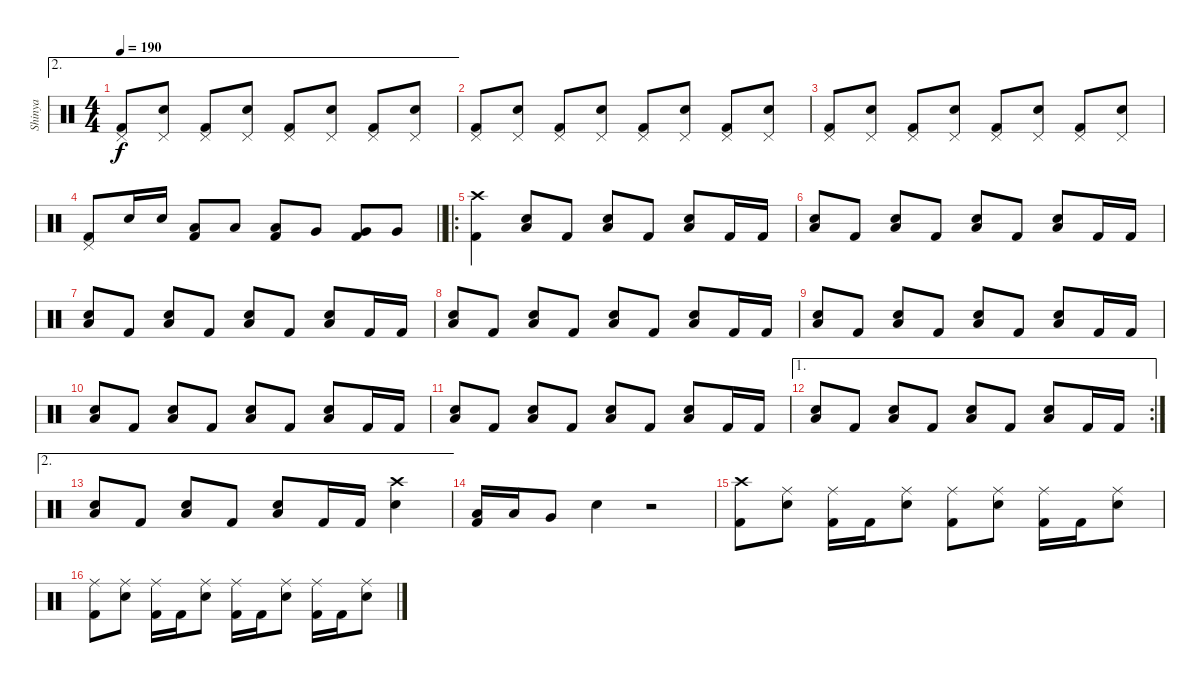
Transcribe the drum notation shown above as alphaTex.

\track ("Shinya" "Shinya") {instrument percussion}
\staff {score}
\articulation defaults
\ae 2
\ts (4 4)
\tempo 190
\clef neutral
\ks c
("Pedal Hi-Hat (hit)" "Kick (hit) 2").8{dy f} ("Pedal Hi-Hat (hit)" "Electric Snare (hit)").8 ("Pedal Hi-Hat (hit)" "Kick (hit) 2").8 ("Pedal Hi-Hat (hit)" "Electric Snare (hit)").8 ("Pedal Hi-Hat (hit)" "Kick (hit) 2").8 ("Pedal Hi-Hat (hit)" "Electric Snare (hit)").8 ("Pedal Hi-Hat (hit)" "Kick (hit) 2").8 ("Pedal Hi-Hat (hit)" "Electric Snare (hit)").8 |
("Pedal Hi-Hat (hit)" "Kick (hit) 2").8 ("Pedal Hi-Hat (hit)" "Electric Snare (hit)").8 ("Pedal Hi-Hat (hit)" "Kick (hit) 2").8 ("Pedal Hi-Hat (hit)" "Electric Snare (hit)").8 ("Pedal Hi-Hat (hit)" "Kick (hit) 2").8 ("Pedal Hi-Hat (hit)" "Electric Snare (hit)").8 ("Pedal Hi-Hat (hit)" "Kick (hit) 2").8 ("Pedal Hi-Hat (hit)" "Electric Snare (hit)").8 |
("Pedal Hi-Hat (hit)" "Kick (hit) 2").8 ("Pedal Hi-Hat (hit)" "Electric Snare (hit)").8 ("Pedal Hi-Hat (hit)" "Kick (hit) 2").8 ("Pedal Hi-Hat (hit)" "Electric Snare (hit)").8 ("Pedal Hi-Hat (hit)" "Kick (hit) 2").8 ("Pedal Hi-Hat (hit)" "Electric Snare (hit)").8 ("Pedal Hi-Hat (hit)" "Kick (hit) 2").8 ("Pedal Hi-Hat (hit)" "Electric Snare (hit)").8 |
\barLineRight lightlight
("Pedal Hi-Hat (hit)" "Kick (hit) 2").8 "Electric Snare (hit)".16 "Electric Snare (hit)".16 ("Low Tom (hit)" "Kick (hit) 2").8 "Low Tom (hit)".8 ("Low Tom (hit)" "Kick (hit) 2").8 "Very Low Tom (hit)".8 ("Very Low Tom (hit)" "Kick (hit) 2").8 "Very Low Tom (hit)".8 |
\ro
("Crash high (hit)" "Kick (hit) 2").4 ("Low Floor Tom (hit)" "Electric Snare (hit)").8 "Kick (hit) 2".8 ("Low Floor Tom (hit)" "Electric Snare (hit)").8 "Kick (hit) 2".8 ("Low Floor Tom (hit)" "Electric Snare (hit)").8 "Kick (hit) 2".16 "Kick (hit) 2".16 |
("Low Floor Tom (hit)" "Electric Snare (hit)").8 "Kick (hit) 2".8 ("Low Floor Tom (hit)" "Electric Snare (hit)").8 "Kick (hit) 2".8 ("Low Floor Tom (hit)" "Electric Snare (hit)").8 "Kick (hit) 2".8 ("Low Floor Tom (hit)" "Electric Snare (hit)").8 "Kick (hit) 2".16 "Kick (hit) 2".16 |
("Low Floor Tom (hit)" "Electric Snare (hit)").8 "Kick (hit) 2".8 ("Low Floor Tom (hit)" "Electric Snare (hit)").8 "Kick (hit) 2".8 ("Low Floor Tom (hit)" "Electric Snare (hit)").8 "Kick (hit) 2".8 ("Low Floor Tom (hit)" "Electric Snare (hit)").8 "Kick (hit) 2".16 "Kick (hit) 2".16 |
("Low Floor Tom (hit)" "Electric Snare (hit)").8 "Kick (hit) 2".8 ("Low Floor Tom (hit)" "Electric Snare (hit)").8 "Kick (hit) 2".8 ("Low Floor Tom (hit)" "Electric Snare (hit)").8 "Kick (hit) 2".8 ("Low Floor Tom (hit)" "Electric Snare (hit)").8 "Kick (hit) 2".16 "Kick (hit) 2".16 |
("Low Floor Tom (hit)" "Electric Snare (hit)").8 "Kick (hit) 2".8 ("Low Floor Tom (hit)" "Electric Snare (hit)").8 "Kick (hit) 2".8 ("Low Floor Tom (hit)" "Electric Snare (hit)").8 "Kick (hit) 2".8 ("Low Floor Tom (hit)" "Electric Snare (hit)").8 "Kick (hit) 2".16 "Kick (hit) 2".16 |
("Low Floor Tom (hit)" "Electric Snare (hit)").8 "Kick (hit) 2".8 ("Low Floor Tom (hit)" "Electric Snare (hit)").8 "Kick (hit) 2".8 ("Low Floor Tom (hit)" "Electric Snare (hit)").8 "Kick (hit) 2".8 ("Low Floor Tom (hit)" "Electric Snare (hit)").8 "Kick (hit) 2".16 "Kick (hit) 2".16 |
("Low Floor Tom (hit)" "Electric Snare (hit)").8 "Kick (hit) 2".8 ("Low Floor Tom (hit)" "Electric Snare (hit)").8 "Kick (hit) 2".8 ("Low Floor Tom (hit)" "Electric Snare (hit)").8 "Kick (hit) 2".8 ("Low Floor Tom (hit)" "Electric Snare (hit)").8 "Kick (hit) 2".16 "Kick (hit) 2".16 |
\ae 1
\rc 2
("Low Floor Tom (hit)" "Electric Snare (hit)").8 "Kick (hit) 2".8 ("Low Floor Tom (hit)" "Electric Snare (hit)").8 "Kick (hit) 2".8 ("Low Floor Tom (hit)" "Electric Snare (hit)").8 "Kick (hit) 2".8 ("Low Floor Tom (hit)" "Electric Snare (hit)").8 "Kick (hit) 2".16 "Kick (hit) 2".16 |
\ae 2
("Low Floor Tom (hit)" "Electric Snare (hit)").8 "Kick (hit) 2".8 ("Low Floor Tom (hit)" "Electric Snare (hit)").8 "Kick (hit) 2".8 ("Low Floor Tom (hit)" "Electric Snare (hit)").8 "Kick (hit) 2".16 "Kick (hit) 2".16 ("Crash high (hit)" "Electric Snare (hit)").4 |
("Low Tom (hit)" "Kick (hit) 2").16 "Low Tom (hit)".16 "Very Low Tom (hit)".8 "Electric Snare (hit)".4 r.2 |
("Crash high (hit)" "Kick (hit) 2").8 ("Ride (middle)" "Electric Snare (hit)").8 ("Ride (middle)" "Kick (hit) 2").16 "Kick (hit) 2".16 ("Ride (middle)" "Electric Snare (hit)").8 ("Ride (middle)" "Kick (hit) 2").8 ("Ride (middle)" "Electric Snare (hit)").8 ("Ride (middle)" "Kick (hit) 2").16 "Kick (hit) 2".16 ("Ride (middle)" "Electric Snare (hit)").8 |
("Ride (middle)" "Kick (hit) 2").8 ("Ride (middle)" "Electric Snare (hit)").8 ("Ride (middle)" "Kick (hit) 2").16 "Kick (hit) 2".16 ("Ride (middle)" "Electric Snare (hit)").8 ("Ride (middle)" "Kick (hit) 2").16 "Kick (hit) 2".16 ("Ride (middle)" "Electric Snare (hit)").8 ("Ride (middle)" "Kick (hit) 2").16 "Kick (hit) 2".16 ("Ride (middle)" "Electric Snare (hit)").8
